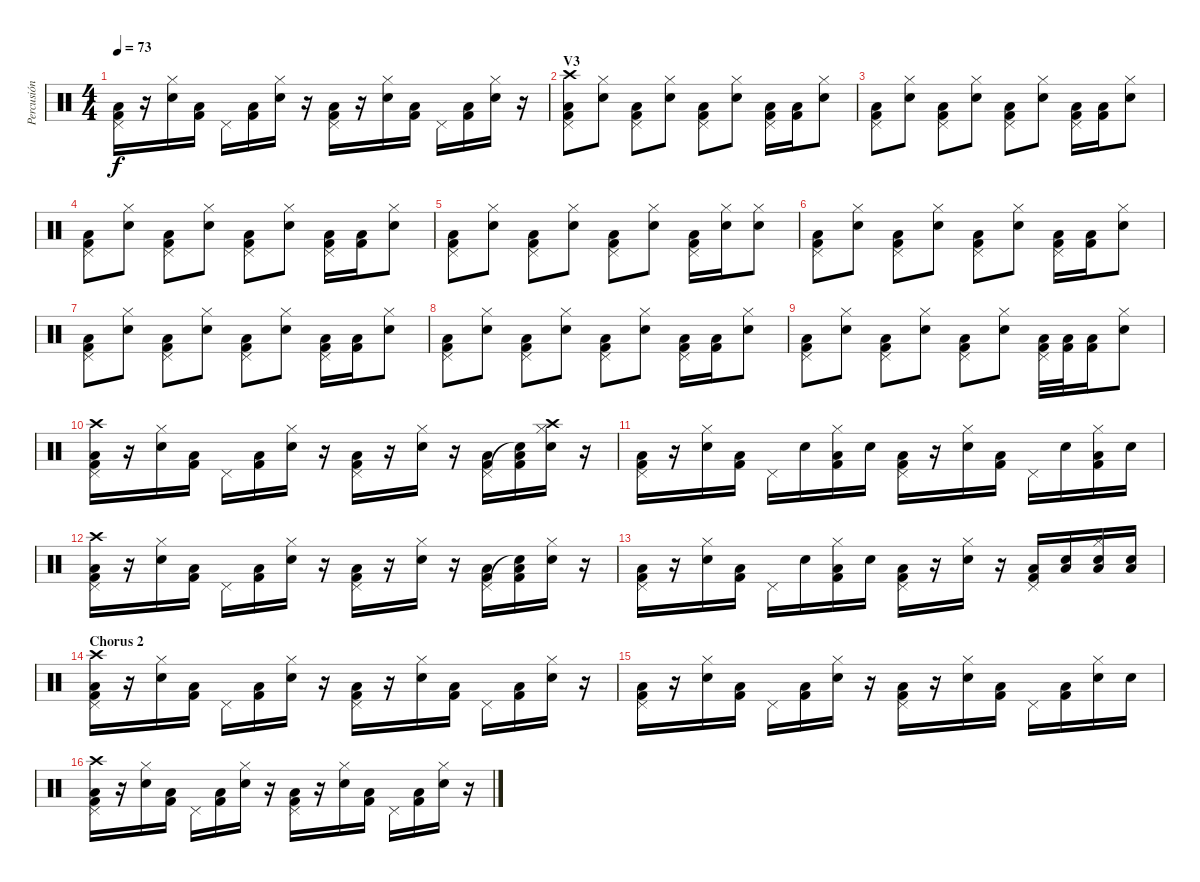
\track ("Percusión" "Percusión") {instrument percussion}
\staff {score}
\articulation defaults
\ts (4 4)
\tempo 73
\clef neutral
\ks c
("Pedal Hi-Hat (hit)" "Low Floor Tom (hit)" "Kick (hit) 2").16{dy f} r.16 ("Hi-Hat (closed)" "Snare (hit) 2").16 ("Low Floor Tom (hit)" "Kick (hit) 2").16 "Pedal Hi-Hat (hit)".16 ("Low Floor Tom (hit)" "Kick (hit) 2").16 ("Hi-Hat (closed)" "Snare (hit) 2").16 r.16 ("Pedal Hi-Hat (hit)" "Low Floor Tom (hit)" "Kick (hit) 2").16 r.16 ("Hi-Hat (closed)" "Snare (hit) 2").16 ("Low Floor Tom (hit)" "Kick (hit) 2").16 "Pedal Hi-Hat (hit)".16 ("Low Floor Tom (hit)" "Kick (hit) 2").16 ("Hi-Hat (closed)" "Snare (hit) 2").16 r.16 |
\section ("" "V3")
("Pedal Hi-Hat (hit)" "Low Floor Tom (hit)" "Kick (hit) 2" "Crash high (hit)").8 ("Hi-Hat (closed)" "Snare (hit) 2").8 ("Pedal Hi-Hat (hit)" "Low Floor Tom (hit)" "Kick (hit) 2").8 ("Hi-Hat (closed)" "Snare (hit) 2").8 ("Pedal Hi-Hat (hit)" "Low Floor Tom (hit)" "Kick (hit) 2").8 ("Hi-Hat (closed)" "Snare (hit) 2").8 ("Pedal Hi-Hat (hit)" "Low Floor Tom (hit)" "Kick (hit) 2").16 ("Low Floor Tom (hit)" "Kick (hit) 2").16 ("Hi-Hat (closed)" "Snare (hit) 2").8 |
("Pedal Hi-Hat (hit)" "Low Floor Tom (hit)" "Kick (hit) 2").8 ("Hi-Hat (closed)" "Snare (hit) 2").8 ("Pedal Hi-Hat (hit)" "Low Floor Tom (hit)" "Kick (hit) 2").8 ("Hi-Hat (closed)" "Snare (hit) 2").8 ("Pedal Hi-Hat (hit)" "Low Floor Tom (hit)" "Kick (hit) 2").8 ("Hi-Hat (closed)" "Snare (hit) 2").8 ("Pedal Hi-Hat (hit)" "Low Floor Tom (hit)" "Kick (hit) 2").16 ("Low Floor Tom (hit)" "Kick (hit) 2").16 ("Hi-Hat (closed)" "Snare (hit) 2").8 |
("Pedal Hi-Hat (hit)" "Low Floor Tom (hit)" "Kick (hit) 2").8 ("Hi-Hat (closed)" "Snare (hit) 2").8 ("Pedal Hi-Hat (hit)" "Low Floor Tom (hit)" "Kick (hit) 2").8 ("Hi-Hat (closed)" "Snare (hit) 2").8 ("Pedal Hi-Hat (hit)" "Low Floor Tom (hit)" "Kick (hit) 2").8 ("Hi-Hat (closed)" "Snare (hit) 2").8 ("Pedal Hi-Hat (hit)" "Low Floor Tom (hit)" "Kick (hit) 2").16 ("Low Floor Tom (hit)" "Kick (hit) 2").16 ("Hi-Hat (closed)" "Snare (hit) 2").8 |
("Pedal Hi-Hat (hit)" "Low Floor Tom (hit)" "Kick (hit) 2").8 ("Hi-Hat (closed)" "Snare (hit) 2").8 ("Pedal Hi-Hat (hit)" "Low Floor Tom (hit)" "Kick (hit) 2").8 ("Hi-Hat (closed)" "Snare (hit) 2").8 ("Pedal Hi-Hat (hit)" "Low Floor Tom (hit)" "Kick (hit) 2").8 ("Hi-Hat (closed)" "Snare (hit) 2").8 ("Pedal Hi-Hat (hit)" "Low Floor Tom (hit)" "Kick (hit) 2").16 ("Hi-Hat (closed)" "Snare (hit) 2").16 ("Hi-Hat (closed)" "Snare (hit) 2").8 |
("Pedal Hi-Hat (hit)" "Low Floor Tom (hit)" "Kick (hit) 2").8 ("Hi-Hat (closed)" "Snare (hit) 2").8 ("Pedal Hi-Hat (hit)" "Low Floor Tom (hit)" "Kick (hit) 2").8 ("Hi-Hat (closed)" "Snare (hit) 2").8 ("Pedal Hi-Hat (hit)" "Low Floor Tom (hit)" "Kick (hit) 2").8 ("Hi-Hat (closed)" "Snare (hit) 2").8 ("Pedal Hi-Hat (hit)" "Low Floor Tom (hit)" "Kick (hit) 2").16 ("Low Floor Tom (hit)" "Kick (hit) 2").16 ("Hi-Hat (closed)" "Snare (hit) 2").8 |
("Pedal Hi-Hat (hit)" "Low Floor Tom (hit)" "Kick (hit) 2").8 ("Hi-Hat (closed)" "Snare (hit) 2").8 ("Pedal Hi-Hat (hit)" "Low Floor Tom (hit)" "Kick (hit) 2").8 ("Hi-Hat (closed)" "Snare (hit) 2").8 ("Pedal Hi-Hat (hit)" "Low Floor Tom (hit)" "Kick (hit) 2").8 ("Hi-Hat (closed)" "Snare (hit) 2").8 ("Pedal Hi-Hat (hit)" "Low Floor Tom (hit)" "Kick (hit) 2").16 ("Low Floor Tom (hit)" "Kick (hit) 2").16 ("Hi-Hat (closed)" "Snare (hit) 2").8 |
("Pedal Hi-Hat (hit)" "Low Floor Tom (hit)" "Kick (hit) 2").8 ("Hi-Hat (closed)" "Snare (hit) 2").8 ("Pedal Hi-Hat (hit)" "Low Floor Tom (hit)" "Kick (hit) 2").8 ("Hi-Hat (closed)" "Snare (hit) 2").8 ("Pedal Hi-Hat (hit)" "Low Floor Tom (hit)" "Kick (hit) 2").8 ("Hi-Hat (closed)" "Snare (hit) 2").8 ("Pedal Hi-Hat (hit)" "Low Floor Tom (hit)" "Kick (hit) 2").16 ("Low Floor Tom (hit)" "Kick (hit) 2").16 ("Hi-Hat (closed)" "Snare (hit) 2").8 |
("Pedal Hi-Hat (hit)" "Low Floor Tom (hit)" "Kick (hit) 2").8 ("Hi-Hat (closed)" "Snare (hit) 2").8 ("Pedal Hi-Hat (hit)" "Low Floor Tom (hit)" "Kick (hit) 2").8 ("Hi-Hat (closed)" "Snare (hit) 2").8 ("Pedal Hi-Hat (hit)" "Low Floor Tom (hit)" "Kick (hit) 2").8 ("Hi-Hat (closed)" "Snare (hit) 2").8 ("Pedal Hi-Hat (hit)" "Low Floor Tom (hit)" "Kick (hit) 2").32 ("Low Floor Tom (hit)" "Kick (hit) 2").32 ("Low Floor Tom (hit)" "Kick (hit) 2").16 ("Hi-Hat (closed)" "Snare (hit) 2").8 |
("Pedal Hi-Hat (hit)" "Low Floor Tom (hit)" "Kick (hit) 2" "Crash high (hit)").16 r.16 ("Hi-Hat (closed)" "Snare (hit) 2").16 ("Low Floor Tom (hit)" "Kick (hit) 2").16 "Pedal Hi-Hat (hit)".16 ("Low Floor Tom (hit)" "Kick (hit) 2").16 ("Hi-Hat (closed)" "Snare (hit) 2").16 r.16 ("Pedal Hi-Hat (hit)" "Low Floor Tom (hit)" "Kick (hit) 2").16 r.16 ("Hi-Hat (closed)" "Snare (hit) 2").16 r.16 ("Pedal Hi-Hat (hit)" "Low Floor Tom (hit)" "Kick (hit) 2").16 ("Snare (hit)"{t} "Low Floor Tom (hit)" "Kick (hit) 2").16 ("Hi-Hat (closed)" "Snare (hit) 2" "Crash high (hit)").16 r.16 |
("Pedal Hi-Hat (hit)" "Low Floor Tom (hit)" "Kick (hit) 2").16 r.16 ("Hi-Hat (closed)" "Snare (hit) 2").16 ("Low Floor Tom (hit)" "Kick (hit) 2").16 "Pedal Hi-Hat (hit)".16 "Snare (hit) 2".16 ("Hi-Hat (closed)" "Low Floor Tom (hit)" "Kick (hit) 2").16 "Snare (hit) 2".16 ("Pedal Hi-Hat (hit)" "Low Floor Tom (hit)" "Kick (hit) 2").16 r.16 ("Hi-Hat (closed)" "Snare (hit) 2").16 ("Low Floor Tom (hit)" "Kick (hit) 2").16 "Pedal Hi-Hat (hit)".16 "Snare (hit) 2".16 ("Hi-Hat (closed)" "Low Floor Tom (hit)" "Kick (hit) 2").16 "Snare (hit) 2".16 |
("Pedal Hi-Hat (hit)" "Low Floor Tom (hit)" "Kick (hit) 2" "Crash high (hit)").16 r.16 ("Hi-Hat (closed)" "Snare (hit) 2").16 ("Low Floor Tom (hit)" "Kick (hit) 2").16 "Pedal Hi-Hat (hit)".16 ("Low Floor Tom (hit)" "Kick (hit) 2").16 ("Hi-Hat (closed)" "Snare (hit) 2").16 r.16 ("Pedal Hi-Hat (hit)" "Low Floor Tom (hit)" "Kick (hit) 2").16 r.16 ("Hi-Hat (closed)" "Snare (hit) 2").16 r.16 ("Pedal Hi-Hat (hit)" "Low Floor Tom (hit)" "Kick (hit) 2").16 ("Snare (hit)"{t} "Low Floor Tom (hit)" "Kick (hit) 2").16 ("Hi-Hat (closed)" "Snare (hit) 2").16 r.16 |
("Pedal Hi-Hat (hit)" "Low Floor Tom (hit)" "Kick (hit) 2").16 r.16 ("Hi-Hat (closed)" "Snare (hit) 2").16 ("Low Floor Tom (hit)" "Kick (hit) 2").16 "Pedal Hi-Hat (hit)".16 "Snare (hit) 2".16 ("Hi-Hat (closed)" "Low Floor Tom (hit)" "Kick (hit) 2").16 "Snare (hit) 2".16 ("Pedal Hi-Hat (hit)" "Low Floor Tom (hit)" "Kick (hit) 2").16 r.16 ("Hi-Hat (closed)" "Snare (hit) 2").16 r.16 ("Pedal Hi-Hat (hit)" "Low Floor Tom (hit)" "Kick (hit) 2").16 ("Low Floor Tom (hit)" "Snare (hit) 2").16 ("Hi-Hat (closed)" "Low Floor Tom (hit)" "Snare (hit) 2").16 ("Low Floor Tom (hit)" "Snare (hit) 2").16 |
\section ("" "Chorus 2")
("Pedal Hi-Hat (hit)" "Low Floor Tom (hit)" "Kick (hit) 2" "Crash high (hit)").16 r.16 ("Hi-Hat (closed)" "Snare (hit) 2").16 ("Low Floor Tom (hit)" "Kick (hit) 2").16 "Pedal Hi-Hat (hit)".16 ("Low Floor Tom (hit)" "Kick (hit) 2").16 ("Hi-Hat (closed)" "Snare (hit) 2").16 r.16 ("Pedal Hi-Hat (hit)" "Low Floor Tom (hit)" "Kick (hit) 2").16 r.16 ("Hi-Hat (closed)" "Snare (hit) 2").16 ("Low Floor Tom (hit)" "Kick (hit) 2").16 "Pedal Hi-Hat (hit)".16 ("Low Floor Tom (hit)" "Kick (hit) 2").16 ("Hi-Hat (closed)" "Snare (hit) 2").16 r.16 |
("Pedal Hi-Hat (hit)" "Low Floor Tom (hit)" "Kick (hit) 2").16 r.16 ("Hi-Hat (closed)" "Snare (hit) 2").16 ("Low Floor Tom (hit)" "Kick (hit) 2").16 "Pedal Hi-Hat (hit)".16 ("Low Floor Tom (hit)" "Kick (hit) 2").16 ("Hi-Hat (closed)" "Snare (hit) 2").16 r.16 ("Pedal Hi-Hat (hit)" "Low Floor Tom (hit)" "Kick (hit) 2").16 r.16 ("Hi-Hat (closed)" "Snare (hit) 2").16 ("Low Floor Tom (hit)" "Kick (hit) 2").16 "Pedal Hi-Hat (hit)".16 ("Low Floor Tom (hit)" "Kick (hit) 2").16 ("Hi-Hat (closed)" "Snare (hit) 2").16 "Snare (hit) 2".16 |
("Pedal Hi-Hat (hit)" "Low Floor Tom (hit)" "Kick (hit) 2" "Crash high (hit)").16 r.16 ("Hi-Hat (closed)" "Snare (hit) 2").16 ("Low Floor Tom (hit)" "Kick (hit) 2").16 "Pedal Hi-Hat (hit)".16 ("Low Floor Tom (hit)" "Kick (hit) 2").16 ("Hi-Hat (closed)" "Snare (hit) 2").16 r.16 ("Pedal Hi-Hat (hit)" "Low Floor Tom (hit)" "Kick (hit) 2").16 r.16 ("Hi-Hat (closed)" "Snare (hit) 2").16 ("Low Floor Tom (hit)" "Kick (hit) 2").16 "Pedal Hi-Hat (hit)".16 ("Low Floor Tom (hit)" "Kick (hit) 2").16 ("Hi-Hat (closed)" "Snare (hit) 2").16 r.16
